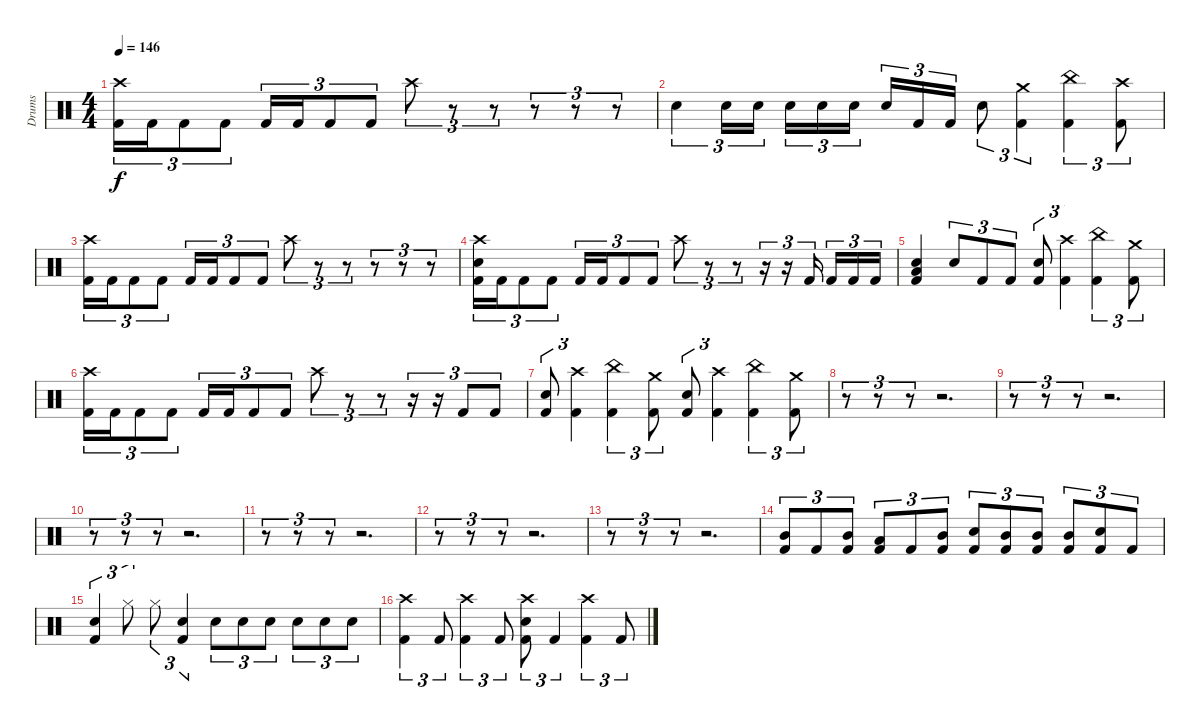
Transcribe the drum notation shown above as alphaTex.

\track ("Drums" "Drums") {instrument percussion}
\staff {score}
\articulation defaults
\ts (4 4)
\tempo 146
\clef neutral
\ks c
("Crash high (hit)" "Kick (hit) 2").16{tu (3 2) dy f} "Kick (hit) 2".16{tu (3 2)} "Kick (hit) 2".8{tu (3 2)} "Kick (hit) 2".8{tu (3 2)} "Kick (hit) 2".16{tu (3 2)} "Kick (hit) 2".16{tu (3 2)} "Kick (hit) 2".8{tu (3 2)} "Kick (hit) 2".8{tu (3 2)} "Crash high (hit)".8{tu (3 2)} r.8{tu (3 2)} r.8{tu (3 2)} r.8{tu (3 2)} r.8{tu (3 2)} r.8{tu (3 2)} |
"Snare (hit) 2".4{tu (3 2)} "Snare (hit)".16{tu (3 2)} "Snare (hit)".16{tu (3 2)} "Snare (hit)".16{tu (3 2)} "Snare (hit)".16{tu (3 2)} "Snare (hit)".16{tu (3 2)} "Snare (hit)".16{tu (3 2)} "Kick (hit) 2".16{tu (3 2)} "Kick (hit) 2".16{tu (3 2)} "Snare (hit) 2".8{tu (3 2)} ("Crash medium (hit)" "Kick (hit) 2").4{tu (3 2)} ("China (hit)" "Kick (hit) 2").4{tu (3 2)} ("Crash high (hit)" "Kick (hit) 2").8{tu (3 2)} |
("Crash high (hit)" "Kick (hit) 2").16{tu (3 2)} "Kick (hit) 2".16{tu (3 2)} "Kick (hit) 2".8{tu (3 2)} "Kick (hit) 2".8{tu (3 2)} "Kick (hit) 2".16{tu (3 2)} "Kick (hit) 2".16{tu (3 2)} "Kick (hit) 2".8{tu (3 2)} "Kick (hit) 2".8{tu (3 2)} "Crash high (hit)".8{tu (3 2)} r.8{tu (3 2)} r.8{tu (3 2)} r.8{tu (3 2)} r.8{tu (3 2)} r.8{tu (3 2)} |
("Crash high (hit)" "Snare (hit) 2" "Kick (hit) 2").16{tu (3 2)} "Kick (hit) 2".16{tu (3 2)} "Kick (hit) 2".8{tu (3 2)} "Kick (hit) 2".8{tu (3 2)} "Kick (hit) 2".16{tu (3 2)} "Kick (hit) 2".16{tu (3 2)} "Kick (hit) 2".8{tu (3 2)} "Kick (hit) 2".8{tu (3 2)} "Crash high (hit)".8{tu (3 2)} r.8{tu (3 2)} r.8{tu (3 2)} r.16{tu (3 2)} r.16{tu (3 2)} "Kick (hit) 2".16{tu (3 2)} "Kick (hit) 2".16{tu (3 2)} "Kick (hit) 2".16{tu (3 2)} "Kick (hit) 2".16{tu (3 2)} |
("Snare (hit) 2" "Kick (hit) 2" "Low Floor Tom (hit)").4 "Snare (hit)".8{tu (3 2)} "Kick (hit) 2".8{tu (3 2)} "Kick (hit) 2".8{tu (3 2)} ("Snare (hit) 2" "Kick (hit) 2").8{tu (3 2)} ("Crash high (hit)" "Kick (hit) 2").4{tu (3 2)} ("China (hit)" "Kick (hit) 2").4{tu (3 2)} ("Crash medium (hit)" "Kick (hit) 2").8{tu (3 2)} |
("Crash high (hit)" "Kick (hit) 2").16{tu (3 2)} "Kick (hit) 2".16{tu (3 2)} "Kick (hit) 2".8{tu (3 2)} "Kick (hit) 2".8{tu (3 2)} "Kick (hit) 2".16{tu (3 2)} "Kick (hit) 2".16{tu (3 2)} "Kick (hit) 2".8{tu (3 2)} "Kick (hit) 2".8{tu (3 2)} "Crash high (hit)".8{tu (3 2)} r.8{tu (3 2)} r.8{tu (3 2)} r.16{tu (3 2)} r.16{tu (3 2)} "Kick (hit) 2".8{tu (3 2)} "Kick (hit) 2".8{tu (3 2)} |
("Snare (hit) 2" "Kick (hit) 2").8{tu (3 2)} ("Crash high (hit)" "Kick (hit) 2").4{tu (3 2)} ("China (hit)" "Kick (hit) 2").4{tu (3 2)} ("Crash medium (hit)" "Kick (hit) 2").8{tu (3 2)} ("Snare (hit) 2" "Kick (hit) 2").8{tu (3 2)} ("Crash high (hit)" "Kick (hit) 2").4{tu (3 2)} ("China (hit)" "Kick (hit) 2").4{tu (3 2)} ("Crash medium (hit)" "Kick (hit) 2").8{tu (3 2)} |
r.8{tu (3 2)} r.8{tu (3 2)} r.8{tu (3 2)} r.2{d} |
r.8{tu (3 2)} r.8{tu (3 2)} r.8{tu (3 2)} r.2{d} |
r.8{tu (3 2)} r.8{tu (3 2)} r.8{tu (3 2)} r.2{d} |
r.8{tu (3 2)} r.8{tu (3 2)} r.8{tu (3 2)} r.2{d} |
r.8{tu (3 2)} r.8{tu (3 2)} r.8{tu (3 2)} r.2{d} |
r.8{tu (3 2)} r.8{tu (3 2)} r.8{tu (3 2)} r.2{d} |
("Mid Tom (hit)" "Kick (hit) 2").8{tu (3 2)} "Kick (hit) 2".8{tu (3 2)} ("Mid Tom (hit)" "Kick (hit) 2").8{tu (3 2)} ("Low Tom (hit)" "Kick (hit) 2").8{tu (3 2)} "Kick (hit) 2".8{tu (3 2)} ("Mid Tom (hit)" "Kick (hit) 2").8{tu (3 2)} ("Snare (hit) 2" "Kick (hit) 2").8{tu (3 2)} ("Mid Tom (hit)" "Kick (hit) 2").8{tu (3 2)} ("Mid Tom (hit)" "Kick (hit) 2").8{tu (3 2)} ("Mid Tom (hit)" "Kick (hit) 2").8{tu (3 2)} ("Snare (hit) 2" "Kick (hit) 2").8{tu (3 2)} "Kick (hit) 2".8{tu (3 2)} |
("Snare (hit) 2" "Kick (hit) 2").4{tu (3 2)} "Hi-Hat (closed)".8{tu (3 2)} "Hi-Hat (closed)".8{tu (3 2)} ("Snare (hit) 2" "Kick (hit) 2").4{tu (3 2)} "Snare (hit) 2".8{tu (3 2)} "Snare (hit) 2".8{tu (3 2)} "Snare (hit) 2".8{tu (3 2)} "Snare (hit) 2".8{tu (3 2)} "Snare (hit) 2".8{tu (3 2)} "Snare (hit) 2".8{tu (3 2)} |
("Crash high (hit)" "Kick (hit) 2").4{tu (3 2)} "Kick (hit) 2".8{tu (3 2)} ("Crash high (hit)" "Kick (hit) 2").4{tu (3 2)} "Kick (hit) 2".8{tu (3 2)} ("Crash high (hit)" "Snare (hit) 2" "Kick (hit) 2").8{tu (3 2)} "Kick (hit) 2".4{tu (3 2)} ("Crash high (hit)" "Kick (hit) 2").4{tu (3 2)} "Kick (hit) 2".8{tu (3 2)}
